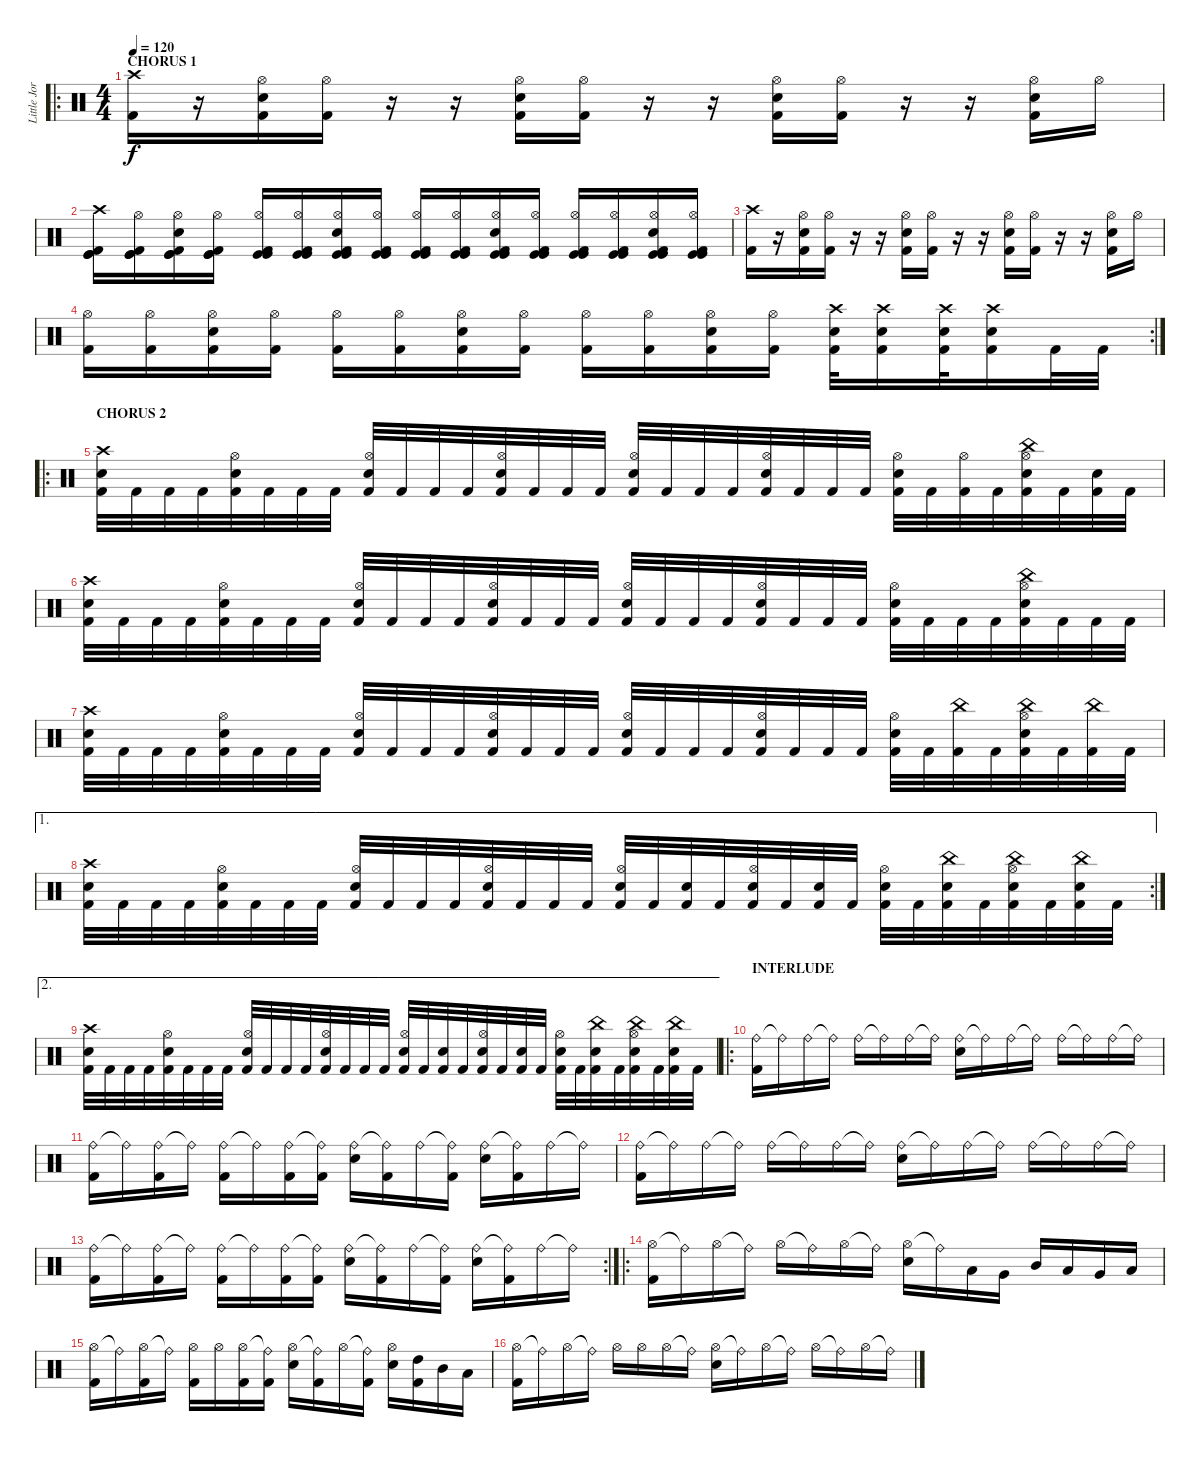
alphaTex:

\track ("Little Jordison" "Little Jor") {instrument percussion}
\staff {score}
\articulation defaults
\ro
\ts (4 4)
\section ("" "CHORUS 1")
\tempo 120
\clef neutral
\ks c
("Crash high (hit)" "Kick (hit) 2").16{dy f} r.16 ("Hi-Hat (open)" "Electric Snare (hit)" "Kick (hit) 2").16 ("Hi-Hat (open)" "Kick (hit) 2").16 r.16 r.16 ("Hi-Hat (open)" "Electric Snare (hit)" "Kick (hit) 2").16 ("Hi-Hat (open)" "Kick (hit) 2").16 r.16 r.16 ("Hi-Hat (open)" "Electric Snare (hit)" "Kick (hit) 2").16 ("Hi-Hat (open)" "Kick (hit) 2").16 r.16 r.16 ("Hi-Hat (open)" "Electric Snare (hit)" "Kick (hit) 2").16 "Hi-Hat (open)".16 |
("Crash high (hit)" "Kick (hit)" "Kick (hit)" "Kick (hit) 2").16 ("Hi-Hat (open)" "Kick (hit)" "Kick (hit)" "Kick (hit) 2").16 ("Hi-Hat (open)" "Kick (hit)" "Kick (hit)" "Electric Snare (hit)" "Kick (hit) 2").16 ("Hi-Hat (open)" "Kick (hit)" "Kick (hit)" "Kick (hit) 2").16 ("Hi-Hat (open)" "Kick (hit)" "Kick (hit)" "Kick (hit) 2").16 ("Hi-Hat (open)" "Kick (hit)" "Kick (hit)" "Kick (hit) 2").16 ("Hi-Hat (open)" "Kick (hit)" "Kick (hit)" "Electric Snare (hit)" "Kick (hit) 2").16 ("Hi-Hat (open)" "Kick (hit)" "Kick (hit)" "Kick (hit) 2").16 ("Hi-Hat (open)" "Kick (hit)" "Kick (hit)" "Kick (hit) 2").16 ("Hi-Hat (open)" "Kick (hit)" "Kick (hit)" "Kick (hit) 2").16 ("Hi-Hat (open)" "Kick (hit)" "Kick (hit)" "Electric Snare (hit)" "Kick (hit) 2").16 ("Hi-Hat (open)" "Kick (hit)" "Kick (hit)" "Kick (hit) 2").16 ("Hi-Hat (open)" "Kick (hit)" "Kick (hit)" "Kick (hit) 2").16 ("Hi-Hat (open)" "Kick (hit)" "Kick (hit)" "Kick (hit) 2").16 ("Hi-Hat (open)" "Kick (hit)" "Kick (hit)" "Electric Snare (hit)" "Kick (hit) 2").16 ("Hi-Hat (open)" "Kick (hit)" "Kick (hit)" "Kick (hit) 2").16 |
("Crash high (hit)" "Kick (hit) 2").16 r.16 ("Hi-Hat (open)" "Electric Snare (hit)" "Kick (hit) 2").16 ("Hi-Hat (open)" "Kick (hit) 2").16 r.16 r.16 ("Hi-Hat (open)" "Electric Snare (hit)" "Kick (hit) 2").16 ("Hi-Hat (open)" "Kick (hit) 2").16 r.16 r.16 ("Hi-Hat (open)" "Electric Snare (hit)" "Kick (hit) 2").16 ("Hi-Hat (open)" "Kick (hit) 2").16 r.16 r.16 ("Hi-Hat (open)" "Electric Snare (hit)" "Kick (hit) 2").16 "Hi-Hat (open)".16 |
\rc 2
("Hi-Hat (open)" "Kick (hit) 2").16 ("Hi-Hat (open)" "Kick (hit) 2").16 ("Hi-Hat (open)" "Electric Snare (hit)" "Kick (hit) 2").16 ("Hi-Hat (open)" "Kick (hit) 2").16 ("Hi-Hat (open)" "Kick (hit) 2").16 ("Hi-Hat (open)" "Kick (hit) 2").16 ("Hi-Hat (open)" "Electric Snare (hit)" "Kick (hit) 2").16 ("Hi-Hat (open)" "Kick (hit) 2").16 ("Hi-Hat (open)" "Kick (hit) 2").16 ("Hi-Hat (open)" "Kick (hit) 2").16 ("Hi-Hat (open)" "Electric Snare (hit)" "Kick (hit) 2").16 ("Hi-Hat (open)" "Kick (hit) 2").16 ("Crash high (hit)" "Electric Snare (hit)" "Kick (hit) 2").32 ("Crash high (hit)" "Electric Snare (hit)" "Kick (hit) 2").16 ("Crash high (hit)" "Electric Snare (hit)" "Kick (hit) 2").32 ("Crash high (hit)" "Electric Snare (hit)" "Kick (hit) 2").16 "Kick (hit) 2".32 "Kick (hit) 2".32 |
\ro
\section ("" "CHORUS 2")
("Crash high (hit)" "Electric Snare (hit)" "Kick (hit) 2").32 "Kick (hit) 2".32 "Kick (hit) 2".32 "Kick (hit) 2".32 ("Hi-Hat (open)" "Electric Snare (hit)" "Kick (hit) 2").32 "Kick (hit) 2".32 "Kick (hit) 2".32 "Kick (hit) 2".32 ("Hi-Hat (open)" "Electric Snare (hit)" "Kick (hit) 2").32 "Kick (hit) 2".32 "Kick (hit) 2".32 "Kick (hit) 2".32 ("Hi-Hat (open)" "Electric Snare (hit)" "Kick (hit) 2").32 "Kick (hit) 2".32 "Kick (hit) 2".32 "Kick (hit) 2".32 ("Hi-Hat (open)" "Electric Snare (hit)" "Kick (hit) 2").32 "Kick (hit) 2".32 "Kick (hit) 2".32 "Kick (hit) 2".32 ("Hi-Hat (open)" "Electric Snare (hit)" "Kick (hit) 2").32 "Kick (hit) 2".32 "Kick (hit) 2".32 "Kick (hit) 2".32 ("Hi-Hat (open)" "Electric Snare (hit)" "Kick (hit) 2").32 "Kick (hit) 2".32 ("Hi-Hat (open)" "Kick (hit) 2").32 "Kick (hit) 2".32 ("China (hit)" "Hi-Hat (open)" "Electric Snare (hit)" "Kick (hit) 2").32 "Kick (hit) 2".32 ("Snare (hit)" "Kick (hit) 2").32 "Kick (hit) 2".32 |
("Crash high (hit)" "Electric Snare (hit)" "Kick (hit) 2").32 "Kick (hit) 2".32 "Kick (hit) 2".32 "Kick (hit) 2".32 ("Hi-Hat (open)" "Electric Snare (hit)" "Kick (hit) 2").32 "Kick (hit) 2".32 "Kick (hit) 2".32 "Kick (hit) 2".32 ("Hi-Hat (open)" "Electric Snare (hit)" "Kick (hit) 2").32 "Kick (hit) 2".32 "Kick (hit) 2".32 "Kick (hit) 2".32 ("Hi-Hat (open)" "Electric Snare (hit)" "Kick (hit) 2").32 "Kick (hit) 2".32 "Kick (hit) 2".32 "Kick (hit) 2".32 ("Hi-Hat (open)" "Electric Snare (hit)" "Kick (hit) 2").32 "Kick (hit) 2".32 "Kick (hit) 2".32 "Kick (hit) 2".32 ("Hi-Hat (open)" "Electric Snare (hit)" "Kick (hit) 2").32 "Kick (hit) 2".32 "Kick (hit) 2".32 "Kick (hit) 2".32 ("Hi-Hat (open)" "Electric Snare (hit)" "Kick (hit) 2").32 "Kick (hit) 2".32 "Kick (hit) 2".32 "Kick (hit) 2".32 ("China (hit)" "Hi-Hat (open)" "Electric Snare (hit)" "Kick (hit) 2").32 "Kick (hit) 2".32 "Kick (hit) 2".32 "Kick (hit) 2".32 |
("Crash high (hit)" "Electric Snare (hit)" "Kick (hit) 2").32 "Kick (hit) 2".32 "Kick (hit) 2".32 "Kick (hit) 2".32 ("Hi-Hat (open)" "Electric Snare (hit)" "Kick (hit) 2").32 "Kick (hit) 2".32 "Kick (hit) 2".32 "Kick (hit) 2".32 ("Hi-Hat (open)" "Electric Snare (hit)" "Kick (hit) 2").32 "Kick (hit) 2".32 "Kick (hit) 2".32 "Kick (hit) 2".32 ("Hi-Hat (open)" "Electric Snare (hit)" "Kick (hit) 2").32 "Kick (hit) 2".32 "Kick (hit) 2".32 "Kick (hit) 2".32 ("Hi-Hat (open)" "Electric Snare (hit)" "Kick (hit) 2").32 "Kick (hit) 2".32 "Kick (hit) 2".32 "Kick (hit) 2".32 ("Hi-Hat (open)" "Electric Snare (hit)" "Kick (hit) 2").32 "Kick (hit) 2".32 "Kick (hit) 2".32 "Kick (hit) 2".32 ("Hi-Hat (open)" "Electric Snare (hit)" "Kick (hit) 2").32 "Kick (hit) 2".32 ("China (hit)" "Kick (hit) 2").32 "Kick (hit) 2".32 ("China (hit)" "Hi-Hat (open)" "Electric Snare (hit)" "Kick (hit) 2").32 "Kick (hit) 2".32 ("China (hit)" "Kick (hit) 2").32 "Kick (hit) 2".32 |
\ae 1
\rc 2
("Crash high (hit)" "Electric Snare (hit)" "Kick (hit) 2").32 "Kick (hit) 2".32 "Kick (hit) 2".32 "Kick (hit) 2".32 ("Hi-Hat (open)" "Electric Snare (hit)" "Kick (hit) 2").32 "Kick (hit) 2".32 "Kick (hit) 2".32 "Kick (hit) 2".32 ("Hi-Hat (open)" "Electric Snare (hit)" "Kick (hit) 2").32 "Kick (hit) 2".32 "Kick (hit) 2".32 "Kick (hit) 2".32 ("Hi-Hat (open)" "Electric Snare (hit)" "Kick (hit) 2").32 "Kick (hit) 2".32 "Kick (hit) 2".32 "Kick (hit) 2".32 ("Hi-Hat (open)" "Electric Snare (hit)" "Kick (hit) 2").32 "Kick (hit) 2".32 ("Electric Snare (hit)" "Kick (hit) 2").32 "Kick (hit) 2".32 ("Hi-Hat (open)" "Electric Snare (hit)" "Kick (hit) 2").32 "Kick (hit) 2".32 ("Electric Snare (hit)" "Kick (hit) 2").32 "Kick (hit) 2".32 ("Hi-Hat (open)" "Electric Snare (hit)" "Kick (hit) 2").32 "Kick (hit) 2".32 ("China (hit)" "Electric Snare (hit)" "Kick (hit) 2").32 "Kick (hit) 2".32 ("China (hit)" "Hi-Hat (open)" "Electric Snare (hit)" "Kick (hit) 2").32 "Kick (hit) 2".32 ("China (hit)" "Electric Snare (hit)" "Kick (hit) 2").32 "Kick (hit) 2".32 |
\ae 2
("Crash high (hit)" "Electric Snare (hit)" "Kick (hit) 2").32 "Kick (hit) 2".32 "Kick (hit) 2".32 "Kick (hit) 2".32 ("Hi-Hat (open)" "Electric Snare (hit)" "Kick (hit) 2").32 "Kick (hit) 2".32 "Kick (hit) 2".32 "Kick (hit) 2".32 ("Hi-Hat (open)" "Electric Snare (hit)" "Kick (hit) 2").32 "Kick (hit) 2".32 "Kick (hit) 2".32 "Kick (hit) 2".32 ("Hi-Hat (open)" "Electric Snare (hit)" "Kick (hit) 2").32 "Kick (hit) 2".32 "Kick (hit) 2".32 "Kick (hit) 2".32 ("Hi-Hat (open)" "Electric Snare (hit)" "Kick (hit) 2").32 "Kick (hit) 2".32 ("Electric Snare (hit)" "Kick (hit) 2").32 "Kick (hit) 2".32 ("Hi-Hat (open)" "Electric Snare (hit)" "Kick (hit) 2").32 "Kick (hit) 2".32 ("Electric Snare (hit)" "Kick (hit) 2").32 "Kick (hit) 2".32 ("Hi-Hat (open)" "Electric Snare (hit)" "Kick (hit) 2").32 "Kick (hit) 2".32 ("China (hit)" "Electric Snare (hit)" "Kick (hit) 2").32 "Kick (hit) 2".32 ("China (hit)" "Hi-Hat (open)" "Electric Snare (hit)" "Kick (hit) 2").32 "Kick (hit) 2".32 ("China (hit)" "Electric Snare (hit)" "Kick (hit) 2").32 "Kick (hit) 2".32 |
\ro
\section ("" "INTERLUDE")
("Ride (bell)" "Kick (hit) 2").16 "Ride (bell)"{t}.16 "Ride (bell)".16 "Ride (bell)"{t}.16 "Ride (bell)".16 "Ride (bell)"{t}.16 "Ride (bell)".16 "Ride (bell)"{t}.16 ("Ride (bell)" "Electric Snare (hit)").16 "Ride (bell)"{t}.16 "Ride (bell)".16 "Ride (bell)"{t}.16 "Ride (bell)".16 "Ride (bell)"{t}.16 "Ride (bell)".16 "Ride (bell)"{t}.16 |
("Ride (bell)" "Kick (hit) 2").16 "Ride (bell)"{t}.16 ("Ride (bell)" "Kick (hit) 2").16 "Ride (bell)"{t}.16 ("Ride (bell)" "Kick (hit) 2").16 "Ride (bell)"{t}.16 ("Ride (bell)" "Kick (hit) 2").16 ("Ride (bell)"{t} "Kick (hit) 2").16 ("Ride (bell)" "Electric Snare (hit)").16 ("Ride (bell)"{t} "Kick (hit) 2").16 "Ride (bell)".16 ("Ride (bell)"{t} "Kick (hit) 2").16 ("Ride (bell)" "Electric Snare (hit)").16 ("Ride (bell)"{t} "Kick (hit) 2").16 "Ride (bell)".16 "Ride (bell)"{t}.16 |
("Ride (bell)" "Kick (hit) 2").16 "Ride (bell)"{t}.16 "Ride (bell)".16 "Ride (bell)"{t}.16 "Ride (bell)".16 "Ride (bell)"{t}.16 "Ride (bell)".16 "Ride (bell)"{t}.16 ("Ride (bell)" "Electric Snare (hit)").16 "Ride (bell)"{t}.16 "Ride (bell)".16 "Ride (bell)"{t}.16 "Ride (bell)".16 "Ride (bell)"{t}.16 "Ride (bell)".16 "Ride (bell)"{t}.16 |
\rc 2
("Ride (bell)" "Kick (hit) 2").16 "Ride (bell)"{t}.16 ("Ride (bell)" "Kick (hit) 2").16 "Ride (bell)"{t}.16 ("Ride (bell)" "Kick (hit) 2").16 "Ride (bell)"{t}.16 ("Ride (bell)" "Kick (hit) 2").16 ("Ride (bell)"{t} "Kick (hit) 2").16 ("Ride (bell)" "Electric Snare (hit)").16 ("Ride (bell)"{t} "Kick (hit) 2").16 "Ride (bell)".16 ("Ride (bell)"{t} "Kick (hit) 2").16 ("Ride (bell)" "Electric Snare (hit)").16 ("Ride (bell)"{t} "Kick (hit) 2").16 "Ride (bell)".16 "Ride (bell)"{t}.16 |
\ro
("Hi-Hat (open)" "Kick (hit) 2").16 "Ride (bell)"{t}.16 "Hi-Hat (open)".16 "Ride (bell)"{t}.16 "Hi-Hat (open)".16 "Ride (bell)"{t}.16 "Hi-Hat (open)".16 "Ride (bell)"{t}.16 ("Hi-Hat (open)" "Electric Snare (hit)").16 "Ride (bell)"{t}.16 "Low Tom (hit)".16 "Very Low Tom (hit)".16 "Mid Tom (hit)".16 "Low Tom (hit)".16 "Very Low Tom (hit)".16 "Low Floor Tom (hit)".16 |
("Hi-Hat (open)" "Kick (hit) 2").16 "Ride (bell)"{t}.16 ("Hi-Hat (open)" "Kick (hit) 2").16 "Ride (bell)"{t}.16 ("Hi-Hat (open)" "Kick (hit) 2").16 "Hi-Hat (open)".16 ("Hi-Hat (open)" "Kick (hit) 2").16 ("Ride (bell)"{t} "Kick (hit) 2").16 ("Hi-Hat (open)" "Electric Snare (hit)").16 ("Ride (bell)"{t} "Kick (hit) 2").16 "Hi-Hat (open)".16 ("Ride (bell)"{t} "Kick (hit) 2").16 ("Hi-Hat (open)" "Electric Snare (hit)").16 ("High Tom (hit)" "Kick (hit) 2").16 "Mid Tom (hit)".16 "Low Tom (hit)".16 |
("Hi-Hat (open)" "Kick (hit) 2").16 "Ride (bell)"{t}.16 "Hi-Hat (open)".16 "Ride (bell)"{t}.16 "Hi-Hat (open)".16 "Hi-Hat (open)".16 "Hi-Hat (open)".16 "Ride (bell)"{t}.16 ("Hi-Hat (open)" "Electric Snare (hit)").16 "Ride (bell)"{t}.16 "Hi-Hat (open)".16 "Ride (bell)"{t}.16 "Hi-Hat (open)".16 "Ride (bell)"{t}.16 "Hi-Hat (open)".16 "Ride (bell)"{t}.16
